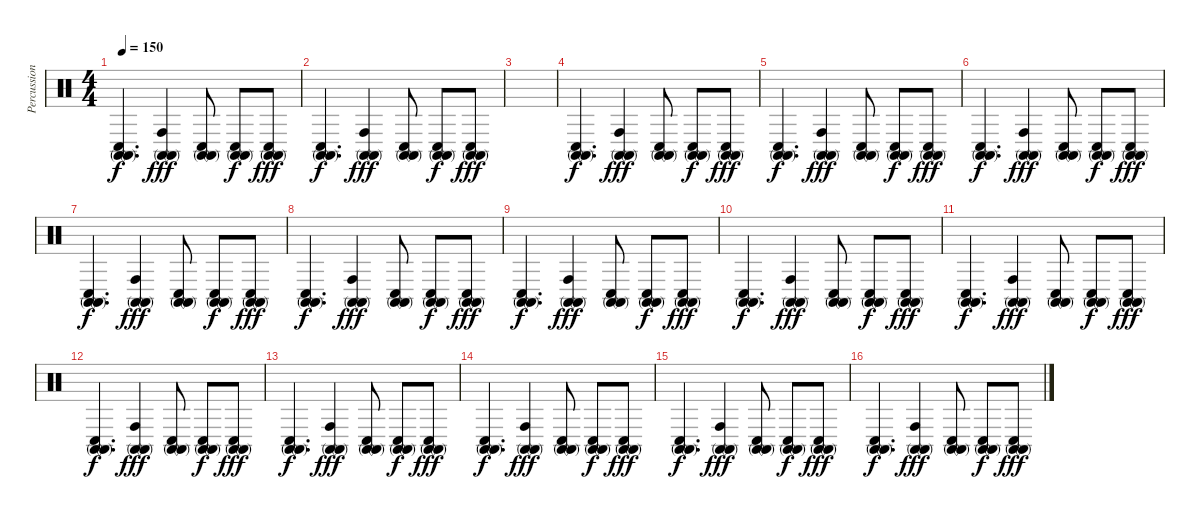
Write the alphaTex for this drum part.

\track ("Percussion2" "Percussion") {instrument percussion}
\staff {score}
\articulation defaults
\ts (4 4)
\tempo 150
\clef neutral
\ks aminor
("Conga high (mute)" "Conga high (mute)" "Conga low (hit)").4{d dy f} ("Conga high (mute)" "Conga high (mute)" "Conga high (hit)").4{dy fff} ("Conga high (mute)" "Conga high (mute)" "Conga low (hit)").8 ("Conga high (mute)" "Conga high (mute)" "Conga low (hit)").8{dy f} ("Conga high (mute)" "Conga high (mute)" "Conga low (hit)").8{dy fff} |
("Conga high (mute)" "Conga high (mute)" "Conga low (hit)").4{d dy f} ("Conga high (mute)" "Conga high (mute)" "Conga high (hit)").4{dy fff} ("Conga high (mute)" "Conga high (mute)" "Conga low (hit)").8 ("Conga high (mute)" "Conga high (mute)" "Conga low (hit)").8{dy f} ("Conga high (mute)" "Conga high (mute)" "Conga low (hit)").8{dy fff} |
|
("Conga high (mute)" "Conga high (mute)" "Conga low (hit)").4{d dy f} ("Conga high (mute)" "Conga high (mute)" "Conga high (hit)").4{dy fff} ("Conga high (mute)" "Conga high (mute)" "Conga low (hit)").8 ("Conga high (mute)" "Conga high (mute)" "Conga low (hit)").8{dy f} ("Conga high (mute)" "Conga high (mute)" "Conga low (hit)").8{dy fff} |
("Conga high (mute)" "Conga high (mute)" "Conga low (hit)").4{d dy f} ("Conga high (mute)" "Conga high (mute)" "Conga high (hit)").4{dy fff} ("Conga high (mute)" "Conga high (mute)" "Conga low (hit)").8 ("Conga high (mute)" "Conga high (mute)" "Conga low (hit)").8{dy f} ("Conga high (mute)" "Conga high (mute)" "Conga low (hit)").8{dy fff} |
("Conga high (mute)" "Conga high (mute)" "Conga low (hit)").4{d dy f} ("Conga high (mute)" "Conga high (mute)" "Conga high (hit)").4{dy fff} ("Conga high (mute)" "Conga high (mute)" "Conga low (hit)").8 ("Conga high (mute)" "Conga high (mute)" "Conga low (hit)").8{dy f} ("Conga high (mute)" "Conga high (mute)" "Conga low (hit)").8{dy fff} |
("Conga high (mute)" "Conga high (mute)" "Conga low (hit)").4{d dy f} ("Conga high (mute)" "Conga high (mute)" "Conga high (hit)").4{dy fff} ("Conga high (mute)" "Conga high (mute)" "Conga low (hit)").8 ("Conga high (mute)" "Conga high (mute)" "Conga low (hit)").8{dy f} ("Conga high (mute)" "Conga high (mute)" "Conga low (hit)").8{dy fff} |
("Conga high (mute)" "Conga high (mute)" "Conga low (hit)").4{d dy f} ("Conga high (mute)" "Conga high (mute)" "Conga high (hit)").4{dy fff} ("Conga high (mute)" "Conga high (mute)" "Conga low (hit)").8 ("Conga high (mute)" "Conga high (mute)" "Conga low (hit)").8{dy f} ("Conga high (mute)" "Conga high (mute)" "Conga low (hit)").8{dy fff} |
("Conga high (mute)" "Conga high (mute)" "Conga low (hit)").4{d dy f} ("Conga high (mute)" "Conga high (mute)" "Conga high (hit)").4{dy fff} ("Conga high (mute)" "Conga high (mute)" "Conga low (hit)").8 ("Conga high (mute)" "Conga high (mute)" "Conga low (hit)").8{dy f} ("Conga high (mute)" "Conga high (mute)" "Conga low (hit)").8{dy fff} |
("Conga high (mute)" "Conga high (mute)" "Conga low (hit)").4{d dy f} ("Conga high (mute)" "Conga high (mute)" "Conga high (hit)").4{dy fff} ("Conga high (mute)" "Conga high (mute)" "Conga low (hit)").8 ("Conga high (mute)" "Conga high (mute)" "Conga low (hit)").8{dy f} ("Conga high (mute)" "Conga high (mute)" "Conga low (hit)").8{dy fff} |
("Conga high (mute)" "Conga high (mute)" "Conga low (hit)").4{d dy f} ("Conga high (mute)" "Conga high (mute)" "Conga high (hit)").4{dy fff} ("Conga high (mute)" "Conga high (mute)" "Conga low (hit)").8 ("Conga high (mute)" "Conga high (mute)" "Conga low (hit)").8{dy f} ("Conga high (mute)" "Conga high (mute)" "Conga low (hit)").8{dy fff} |
("Conga high (mute)" "Conga high (mute)" "Conga low (hit)").4{d dy f} ("Conga high (mute)" "Conga high (mute)" "Conga high (hit)").4{dy fff} ("Conga high (mute)" "Conga high (mute)" "Conga low (hit)").8 ("Conga high (mute)" "Conga high (mute)" "Conga low (hit)").8{dy f} ("Conga high (mute)" "Conga high (mute)" "Conga low (hit)").8{dy fff} |
("Conga high (mute)" "Conga high (mute)" "Conga low (hit)").4{d dy f} ("Conga high (mute)" "Conga high (mute)" "Conga high (hit)").4{dy fff} ("Conga high (mute)" "Conga high (mute)" "Conga low (hit)").8 ("Conga high (mute)" "Conga high (mute)" "Conga low (hit)").8{dy f} ("Conga high (mute)" "Conga high (mute)" "Conga low (hit)").8{dy fff} |
("Conga high (mute)" "Conga high (mute)" "Conga low (hit)").4{d dy f} ("Conga high (mute)" "Conga high (mute)" "Conga high (hit)").4{dy fff} ("Conga high (mute)" "Conga high (mute)" "Conga low (hit)").8 ("Conga high (mute)" "Conga high (mute)" "Conga low (hit)").8{dy f} ("Conga high (mute)" "Conga high (mute)" "Conga low (hit)").8{dy fff} |
("Conga high (mute)" "Conga high (mute)" "Conga low (hit)").4{d dy f} ("Conga high (mute)" "Conga high (mute)" "Conga high (hit)").4{dy fff} ("Conga high (mute)" "Conga high (mute)" "Conga low (hit)").8 ("Conga high (mute)" "Conga high (mute)" "Conga low (hit)").8{dy f} ("Conga high (mute)" "Conga high (mute)" "Conga low (hit)").8{dy fff} |
("Conga high (mute)" "Conga high (mute)" "Conga low (hit)").4{d dy f} ("Conga high (mute)" "Conga high (mute)" "Conga high (hit)").4{dy fff} ("Conga high (mute)" "Conga high (mute)" "Conga low (hit)").8 ("Conga high (mute)" "Conga high (mute)" "Conga low (hit)").8{dy f} ("Conga high (mute)" "Conga high (mute)" "Conga low (hit)").8{dy fff}
